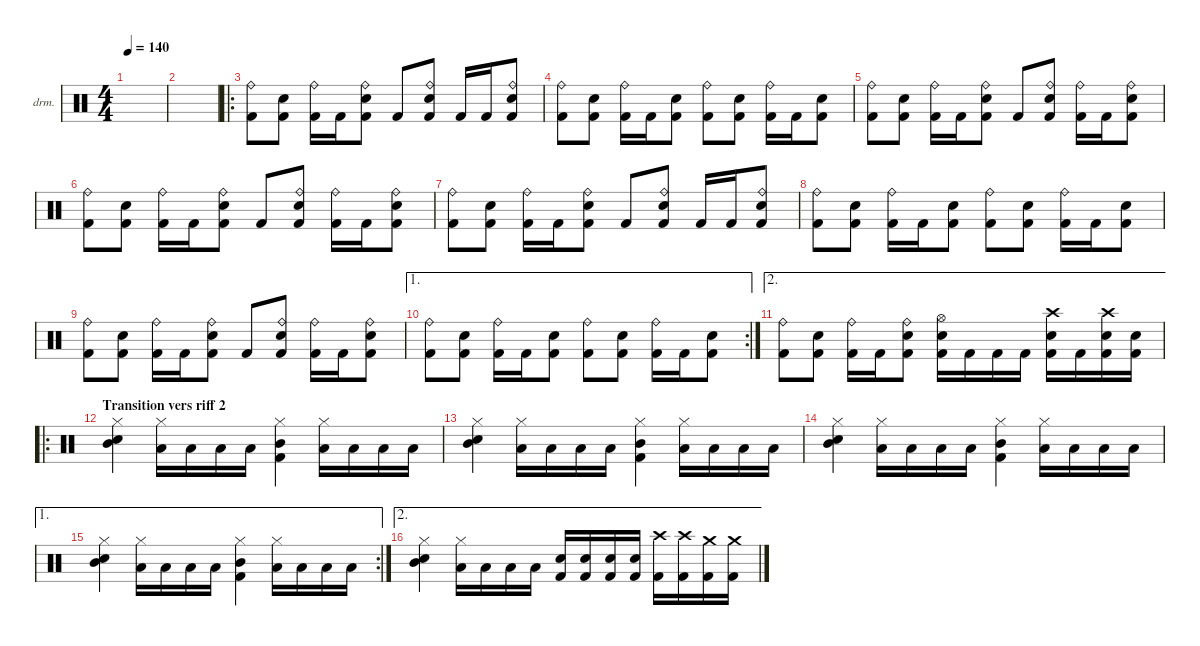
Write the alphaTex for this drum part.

\defaultSystemsLayout 4
\hideDynamics
\bracketExtendMode nobrackets
\firstSystemTrackNameOrientation horizontal
\otherSystemsTrackNameOrientation horizontal
\track ("Drumkit" "drm.") {instrument percussion}
\staff {score}
\articulation defaults
\ts (4 4)
\tempo 140
\clef neutral
\ks c
|
|
\ro
("Kick (hit) 2" "Ride (bell)").8{dy mf} ("Snare (hit) 2" "Kick (hit) 2").8 ("Kick (hit) 2" "Ride (bell)").16 "Kick (hit) 2".16 ("Snare (hit) 2" "Kick (hit) 2" "Ride (bell)").8 "Kick (hit) 2".8 ("Snare (hit) 2" "Kick (hit) 2" "Ride (bell)").8 "Kick (hit) 2".16 "Kick (hit) 2".16 ("Snare (hit) 2" "Kick (hit) 2" "Ride (bell)").8 |
("Kick (hit) 2" "Ride (bell)").8 ("Snare (hit) 2" "Kick (hit) 2").8 ("Kick (hit) 2" "Ride (bell)").16 "Kick (hit) 2".16 ("Snare (hit) 2" "Kick (hit) 2").8 ("Kick (hit) 2" "Ride (bell)").8 ("Snare (hit) 2" "Kick (hit) 2").8 ("Kick (hit) 2" "Ride (bell)").16 "Kick (hit) 2".16 ("Snare (hit) 2" "Kick (hit) 2").8 |
("Kick (hit) 2" "Ride (bell)").8 ("Snare (hit) 2" "Kick (hit) 2").8 ("Kick (hit) 2" "Ride (bell)").16 "Kick (hit) 2".16 ("Snare (hit) 2" "Kick (hit) 2" "Ride (bell)").8 "Kick (hit) 2".8 ("Snare (hit) 2" "Kick (hit) 2" "Ride (bell)").8 ("Kick (hit) 2" "Ride (bell)").16 "Kick (hit) 2".16 ("Snare (hit) 2" "Kick (hit) 2" "Ride (bell)").8 |
("Kick (hit) 2" "Ride (bell)").8 ("Snare (hit) 2" "Kick (hit) 2").8 ("Kick (hit) 2" "Ride (bell)").16 "Kick (hit) 2".16 ("Snare (hit) 2" "Kick (hit) 2" "Ride (bell)").8 "Kick (hit) 2".8 ("Snare (hit) 2" "Kick (hit) 2" "Ride (bell)").8 ("Kick (hit) 2" "Ride (bell)").16 "Kick (hit) 2".16 ("Snare (hit) 2" "Kick (hit) 2" "Ride (bell)").8 |
("Kick (hit) 2" "Ride (bell)").8 ("Snare (hit) 2" "Kick (hit) 2").8 ("Kick (hit) 2" "Ride (bell)").16 "Kick (hit) 2".16 ("Snare (hit) 2" "Kick (hit) 2" "Ride (bell)").8 "Kick (hit) 2".8 ("Snare (hit) 2" "Kick (hit) 2" "Ride (bell)").8 "Kick (hit) 2".16 "Kick (hit) 2".16 ("Snare (hit) 2" "Kick (hit) 2" "Ride (bell)").8 |
("Kick (hit) 2" "Ride (bell)").8 ("Snare (hit) 2" "Kick (hit) 2").8 ("Kick (hit) 2" "Ride (bell)").16 "Kick (hit) 2".16 ("Snare (hit) 2" "Kick (hit) 2").8 ("Kick (hit) 2" "Ride (bell)").8 ("Snare (hit) 2" "Kick (hit) 2").8 ("Kick (hit) 2" "Ride (bell)").16 "Kick (hit) 2".16 ("Snare (hit) 2" "Kick (hit) 2").8 |
("Kick (hit) 2" "Ride (bell)").8 ("Snare (hit) 2" "Kick (hit) 2").8 ("Kick (hit) 2" "Ride (bell)").16 "Kick (hit) 2".16 ("Snare (hit) 2" "Kick (hit) 2" "Ride (bell)").8 "Kick (hit) 2".8 ("Snare (hit) 2" "Kick (hit) 2" "Ride (bell)").8 ("Kick (hit) 2" "Ride (bell)").16 "Kick (hit) 2".16 ("Snare (hit) 2" "Kick (hit) 2" "Ride (bell)").8 |
\ae 1
\rc 2
("Kick (hit) 2" "Ride (bell)").8 ("Snare (hit) 2" "Kick (hit) 2").8 ("Kick (hit) 2" "Ride (bell)").16 "Kick (hit) 2".16 ("Snare (hit) 2" "Kick (hit) 2").8 ("Kick (hit) 2" "Ride (bell)").8 ("Snare (hit) 2" "Kick (hit) 2").8 ("Kick (hit) 2" "Ride (bell)").16 "Kick (hit) 2".16 ("Snare (hit) 2" "Kick (hit) 2").8 |
\ae 2
("Kick (hit) 2" "Ride (bell)").8 ("Snare (hit) 2" "Kick (hit) 2").8 ("Kick (hit) 2" "Ride (bell)").16 "Kick (hit) 2".16 ("Snare (hit) 2" "Kick (hit) 2" "Ride (bell)").8 ("Hi-Hat (open)" "Snare (hit) 2" "Kick (hit) 2").16 "Kick (hit) 2".16 "Kick (hit) 2".16 "Kick (hit) 2".16 ("Crash high (hit)" "Snare (hit) 2" "Kick (hit) 2").16 "Kick (hit) 2".16 ("Crash high (hit)" "Snare (hit) 2" "Kick (hit) 2").16 ("Snare (hit) 2" "Kick (hit) 2").16 |
\ro
\section ("" "Transition vers riff 2")
("Snare (hit) 2" "Mid Tom (hit)" "Hi-Hat (closed)").4{dy fff} ("Low Tom (hit)" "Hi-Hat (closed)").16 "Low Tom (hit)".16 "Low Tom (hit)".16 "Low Tom (hit)".16 ("Mid Tom (hit)" "Kick (hit) 2" "Hi-Hat (closed)").4 ("Low Tom (hit)" "Hi-Hat (closed)").16 "Low Tom (hit)".16 "Low Tom (hit)".16 "Low Tom (hit)".16 |
("Snare (hit) 2" "Mid Tom (hit)" "Hi-Hat (closed)").4 ("Low Tom (hit)" "Hi-Hat (closed)").16 "Low Tom (hit)".16 "Low Tom (hit)".16 "Low Tom (hit)".16 ("Mid Tom (hit)" "Kick (hit) 2" "Hi-Hat (closed)").4 ("Low Tom (hit)" "Hi-Hat (closed)").16 "Low Tom (hit)".16 "Low Tom (hit)".16 "Low Tom (hit)".16 |
("Snare (hit) 2" "Mid Tom (hit)" "Hi-Hat (closed)").4 ("Low Tom (hit)" "Hi-Hat (closed)").16 "Low Tom (hit)".16 "Low Tom (hit)".16 "Low Tom (hit)".16 ("Mid Tom (hit)" "Kick (hit) 2" "Hi-Hat (closed)").4 ("Low Tom (hit)" "Hi-Hat (closed)").16 "Low Tom (hit)".16 "Low Tom (hit)".16 "Low Tom (hit)".16 |
\ae 1
\rc 2
("Snare (hit) 2" "Mid Tom (hit)" "Hi-Hat (closed)").4 ("Low Tom (hit)" "Hi-Hat (closed)").16 "Low Tom (hit)".16 "Low Tom (hit)".16 "Low Tom (hit)".16 ("Mid Tom (hit)" "Kick (hit) 2" "Hi-Hat (closed)").4 ("Low Tom (hit)" "Hi-Hat (closed)").16 "Low Tom (hit)".16 "Low Tom (hit)".16 "Low Tom (hit)".16 |
\ae 2
("Snare (hit) 2" "Mid Tom (hit)" "Hi-Hat (closed)").4 ("Low Tom (hit)" "Hi-Hat (closed)").16 "Low Tom (hit)".16 "Low Tom (hit)".16 "Low Tom (hit)".16 ("Kick (hit) 2" "Snare (hit) 2").16{dy f} ("Kick (hit) 2" "Snare (hit) 2").16 ("Kick (hit) 2" "Snare (hit) 2").16 ("Kick (hit) 2" "Snare (hit) 2").16 ("Kick (hit) 2" "Crash high (hit)").16 ("Kick (hit) 2" "Crash high (hit)").16 ("Kick (hit) 2" "Crash medium (hit)").16 ("Kick (hit) 2" "Crash medium (hit)").16
